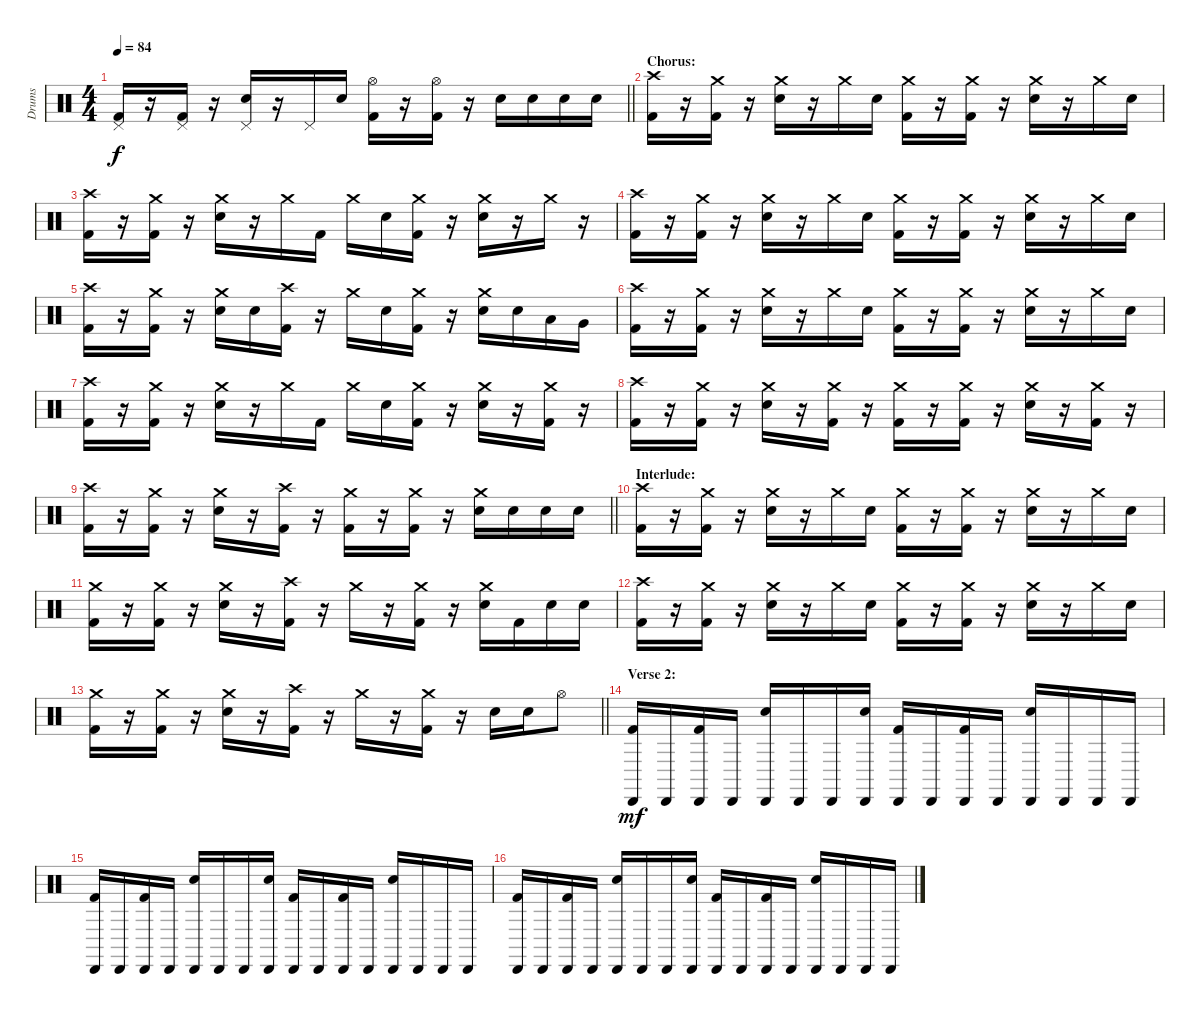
\track ("Drums" "Drums") {instrument percussion}
\staff {score}
\articulation defaults
\ts (4 4)
\tempo 84
\clef neutral
\barLineRight lightlight
\ks c
("Pedal Hi-Hat (hit)" "Kick (hit) 2").16{dy f} r.16 ("Pedal Hi-Hat (hit)" "Kick (hit) 2").16 r.16 ("Pedal Hi-Hat (hit)" "Electric Snare (hit)").16 r.16 "Pedal Hi-Hat (hit)".16 "Electric Snare (hit)".16 ("Hi-Hat (open)" "Kick (hit) 2").16 r.16 ("Hi-Hat (open)" "Kick (hit) 2").16 r.16 "Electric Snare (hit)".16 "Electric Snare (hit)".16 "Electric Snare (hit)".16 "Electric Snare (hit)".16 |
\section ("" "Chorus:")
("Crash high (hit)" "Kick (hit) 2").16 r.16 ("Crash medium (hit)" "Kick (hit) 2").16 r.16 ("Crash medium (hit)" "Electric Snare (hit)").16 r.16 "Crash medium (hit)".16 "Electric Snare (hit)".16 ("Crash medium (hit)" "Kick (hit) 2").16 r.16 ("Crash medium (hit)" "Kick (hit) 2").16 r.16 ("Crash medium (hit)" "Electric Snare (hit)").16 r.16 "Crash medium (hit)".16 "Electric Snare (hit)".16 |
("Crash high (hit)" "Kick (hit) 2").16 r.16 ("Crash medium (hit)" "Kick (hit) 2").16 r.16 ("Crash medium (hit)" "Electric Snare (hit)").16 r.16 "Crash medium (hit)".16 "Kick (hit) 2".16 "Crash medium (hit)".16 "Electric Snare (hit)".16 ("Crash medium (hit)" "Kick (hit) 2").16 r.16 ("Crash medium (hit)" "Electric Snare (hit)").16 r.16 "Crash medium (hit)".16 r.16 |
("Crash high (hit)" "Kick (hit) 2").16 r.16 ("Crash medium (hit)" "Kick (hit) 2").16 r.16 ("Crash medium (hit)" "Electric Snare (hit)").16 r.16 "Crash medium (hit)".16 "Electric Snare (hit)".16 ("Crash medium (hit)" "Kick (hit) 2").16 r.16 ("Crash medium (hit)" "Kick (hit) 2").16 r.16 ("Crash medium (hit)" "Electric Snare (hit)").16 r.16 "Crash medium (hit)".16 "Electric Snare (hit)".16 |
("Crash high (hit)" "Kick (hit) 2").16 r.16 ("Crash medium (hit)" "Kick (hit) 2").16 r.16 ("Crash medium (hit)" "Electric Snare (hit)").16 "Electric Snare (hit)".16 ("Crash high (hit)" "Kick (hit) 2").16 r.16 "Crash medium (hit)".16 "Electric Snare (hit)".16 ("Crash medium (hit)" "Kick (hit) 2").16 r.16 ("Crash medium (hit)" "Electric Snare (hit)").16 "Electric Snare (hit)".16 "Low Tom (hit)".16 "Very Low Tom (hit)".16 |
("Crash high (hit)" "Kick (hit) 2").16 r.16 ("Crash medium (hit)" "Kick (hit) 2").16 r.16 ("Crash medium (hit)" "Electric Snare (hit)").16 r.16 "Crash medium (hit)".16 "Electric Snare (hit)".16 ("Crash medium (hit)" "Kick (hit) 2").16 r.16 ("Crash medium (hit)" "Kick (hit) 2").16 r.16 ("Crash medium (hit)" "Electric Snare (hit)").16 r.16 "Crash medium (hit)".16 "Electric Snare (hit)".16 |
("Crash high (hit)" "Kick (hit) 2").16 r.16 ("Crash medium (hit)" "Kick (hit) 2").16 r.16 ("Crash medium (hit)" "Electric Snare (hit)").16 r.16 "Crash medium (hit)".16 "Kick (hit) 2".16 "Crash medium (hit)".16 "Electric Snare (hit)".16 ("Crash medium (hit)" "Kick (hit) 2").16 r.16 ("Crash medium (hit)" "Electric Snare (hit)").16 r.16 ("Crash medium (hit)" "Kick (hit) 2").16 r.16 |
("Crash high (hit)" "Kick (hit) 2").16 r.16 ("Crash medium (hit)" "Kick (hit) 2").16 r.16 ("Crash medium (hit)" "Electric Snare (hit)").16 r.16 ("Crash medium (hit)" "Kick (hit) 2").16 r.16 ("Crash medium (hit)" "Kick (hit) 2").16 r.16 ("Crash medium (hit)" "Kick (hit) 2").16 r.16 ("Crash medium (hit)" "Electric Snare (hit)").16 r.16 ("Crash medium (hit)" "Kick (hit) 2").16 r.16 |
\barLineRight lightlight
("Crash high (hit)" "Kick (hit) 2").16 r.16 ("Crash medium (hit)" "Kick (hit) 2").16 r.16 ("Crash medium (hit)" "Electric Snare (hit)").16 r.16 ("Crash high (hit)" "Kick (hit) 2").16 r.16 ("Crash medium (hit)" "Kick (hit) 2").16 r.16 ("Crash medium (hit)" "Kick (hit) 2").16 r.16 ("Crash medium (hit)" "Electric Snare (hit)").16 "Electric Snare (hit)".16 "Electric Snare (hit)".16 "Electric Snare (hit)".16 |
\section ("" "Interlude:")
("Crash high (hit)" "Kick (hit) 2").16 r.16 ("Crash medium (hit)" "Kick (hit) 2").16 r.16 ("Crash medium (hit)" "Electric Snare (hit)").16 r.16 "Crash medium (hit)".16 "Electric Snare (hit)".16 ("Crash medium (hit)" "Kick (hit) 2").16 r.16 ("Crash medium (hit)" "Kick (hit) 2").16 r.16 ("Crash medium (hit)" "Electric Snare (hit)").16 r.16 "Crash medium (hit)".16 "Electric Snare (hit)".16 |
("Crash medium (hit)" "Kick (hit) 2").16 r.16 ("Crash medium (hit)" "Kick (hit) 2").16 r.16 ("Crash medium (hit)" "Electric Snare (hit)").16 r.16 ("Crash high (hit)" "Kick (hit) 2").16 r.16 "Crash medium (hit)".16 r.16 ("Crash medium (hit)" "Kick (hit) 2").16 r.16 ("Crash medium (hit)" "Electric Snare (hit)").16 "Kick (hit) 2".16 "Electric Snare (hit)".16 "Electric Snare (hit)".16 |
("Crash high (hit)" "Kick (hit) 2").16 r.16 ("Crash medium (hit)" "Kick (hit) 2").16 r.16 ("Crash medium (hit)" "Electric Snare (hit)").16 r.16 "Crash medium (hit)".16 "Electric Snare (hit)".16 ("Crash medium (hit)" "Kick (hit) 2").16 r.16 ("Crash medium (hit)" "Kick (hit) 2").16 r.16 ("Crash medium (hit)" "Electric Snare (hit)").16 r.16 "Crash medium (hit)".16 "Electric Snare (hit)".16 |
\barLineRight lightlight
("Crash medium (hit)" "Kick (hit) 2").16 r.16 ("Crash medium (hit)" "Kick (hit) 2").16 r.16 ("Crash medium (hit)" "Electric Snare (hit)").16 r.16 ("Crash high (hit)" "Kick (hit) 2").16 r.16 "Crash medium (hit)".16 r.16 ("Crash medium (hit)" "Kick (hit) 2").16 r.16 "Electric Snare (hit)".16 "Electric Snare (hit)".16 "Hi-Hat (open)".8 |
\section ("" "Verse 2:")
("Cabasa (hit)" "Kick (hit) 2").16{dy mf} "Cabasa (hit)".16 ("Cabasa (hit)" "Kick (hit) 2").16 "Cabasa (hit)".16 ("Cabasa (hit)" "Electric Snare (hit)").16 "Cabasa (hit)".16 "Cabasa (hit)".16 ("Cabasa (hit)" "Electric Snare (hit)").16 ("Cabasa (hit)" "Kick (hit) 2").16 "Cabasa (hit)".16 ("Cabasa (hit)" "Kick (hit) 2").16 "Cabasa (hit)".16 ("Cabasa (hit)" "Electric Snare (hit)").16 "Cabasa (hit)".16 "Cabasa (hit)".16 "Cabasa (hit)".16 |
("Cabasa (hit)" "Kick (hit) 2").16 "Cabasa (hit)".16 ("Cabasa (hit)" "Kick (hit) 2").16 "Cabasa (hit)".16 ("Cabasa (hit)" "Electric Snare (hit)").16 "Cabasa (hit)".16 "Cabasa (hit)".16 ("Cabasa (hit)" "Electric Snare (hit)").16 ("Cabasa (hit)" "Kick (hit) 2").16 "Cabasa (hit)".16 ("Cabasa (hit)" "Kick (hit) 2").16 "Cabasa (hit)".16 ("Cabasa (hit)" "Electric Snare (hit)").16 "Cabasa (hit)".16 "Cabasa (hit)".16 "Cabasa (hit)".16 |
("Cabasa (hit)" "Kick (hit) 2").16 "Cabasa (hit)".16 ("Cabasa (hit)" "Kick (hit) 2").16 "Cabasa (hit)".16 ("Cabasa (hit)" "Electric Snare (hit)").16 "Cabasa (hit)".16 "Cabasa (hit)".16 ("Cabasa (hit)" "Electric Snare (hit)").16 ("Cabasa (hit)" "Kick (hit) 2").16 "Cabasa (hit)".16 ("Cabasa (hit)" "Kick (hit) 2").16 "Cabasa (hit)".16 ("Cabasa (hit)" "Electric Snare (hit)").16 "Cabasa (hit)".16 "Cabasa (hit)".16 "Cabasa (hit)".16
